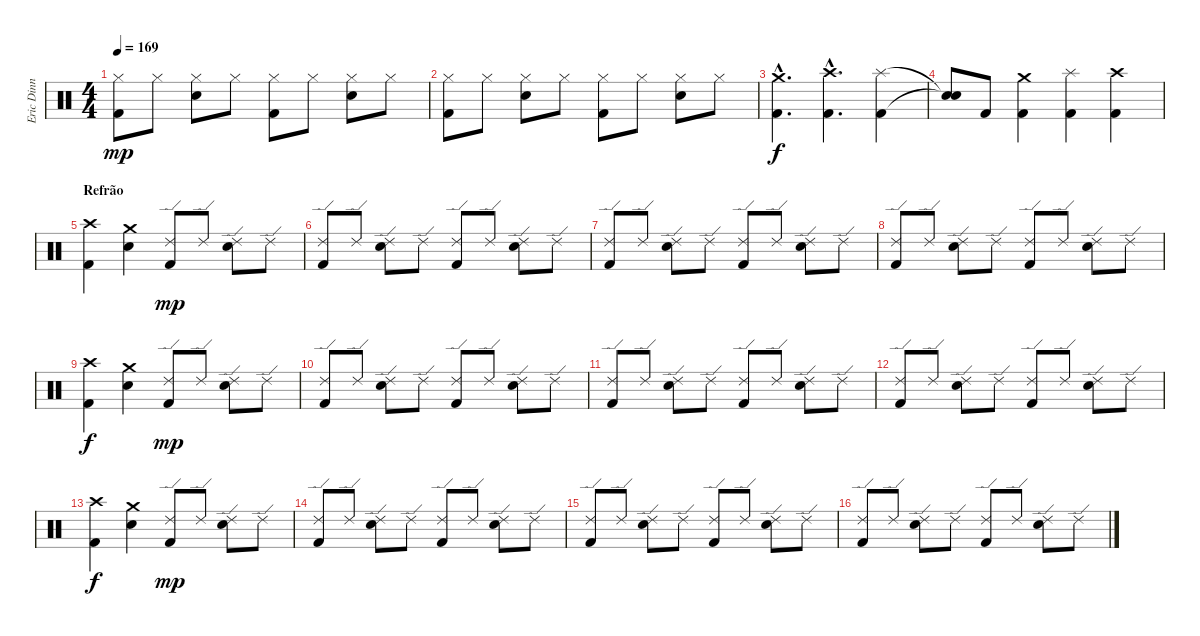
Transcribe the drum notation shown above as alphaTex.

\track ("Eric Dinn" "Eric Dinn") {instrument percussion}
\staff {score}
\articulation defaults
\ts (4 4)
\tempo 169
\clef neutral
\ks c
("Hi-Hat (closed)" "Kick (hit) 2").8{dy mp} "Hi-Hat (closed)".8 ("Hi-Hat (closed)" "Snare (hit) 2").8 "Hi-Hat (closed)".8 ("Hi-Hat (closed)" "Kick (hit) 2").8 "Hi-Hat (closed)".8 ("Hi-Hat (closed)" "Snare (hit) 2").8 "Hi-Hat (closed)".8 |
("Hi-Hat (closed)" "Kick (hit) 2").8 "Hi-Hat (closed)".8 ("Hi-Hat (closed)" "Snare (hit) 2").8 "Hi-Hat (closed)".8 ("Hi-Hat (closed)" "Kick (hit) 2").8 "Hi-Hat (closed)".8 ("Hi-Hat (closed)" "Snare (hit) 2").8 "Hi-Hat (closed)".8 |
("Crash medium (hit)"{hac} "Kick (hit) 2"{hac}).4{d dy f} ("Crash high (hit)"{hac} "Kick (hit) 2"{hac}).4{d} ("Splash (hit)" "Kick (hit) 2").4 |
("Snare (hit)"{t} "Snare (hit)"{t}).8 "Kick (hit) 2".8 ("Crash medium (hit)" "Kick (hit) 2").4 ("Splash (hit)" "Kick (hit) 2").4 ("Crash high (hit)" "Kick (hit) 2").4 |
\section ("" "Refrão")
("Crash high (hit)" "Kick (hit) 2").4 ("Crash medium (hit)" "Snare (hit) 2").4 ("Ride (edge) 2" "Kick (hit) 2").8{dy mp} "Ride (edge) 2".8 ("Ride (edge) 2" "Snare (hit) 2").8 "Ride (edge) 2".8 |
("Ride (edge) 2" "Kick (hit) 2").8 "Ride (edge) 2".8 ("Ride (edge) 2" "Snare (hit) 2").8 "Ride (edge) 2".8 ("Ride (edge) 2" "Kick (hit) 2").8 "Ride (edge) 2".8 ("Ride (edge) 2" "Snare (hit) 2").8 "Ride (edge) 2".8 |
("Ride (edge) 2" "Kick (hit) 2").8 "Ride (edge) 2".8 ("Ride (edge) 2" "Snare (hit) 2").8 "Ride (edge) 2".8 ("Ride (edge) 2" "Kick (hit) 2").8 "Ride (edge) 2".8 ("Ride (edge) 2" "Snare (hit) 2").8 "Ride (edge) 2".8 |
("Ride (edge) 2" "Kick (hit) 2").8 "Ride (edge) 2".8 ("Ride (edge) 2" "Snare (hit) 2").8 "Ride (edge) 2".8 ("Ride (edge) 2" "Kick (hit) 2").8 "Ride (edge) 2".8 ("Ride (edge) 2" "Snare (hit) 2").8 "Ride (edge) 2".8 |
("Crash high (hit)" "Kick (hit) 2").4{dy f} ("Crash medium (hit)" "Snare (hit) 2").4 ("Ride (edge) 2" "Kick (hit) 2").8{dy mp} "Ride (edge) 2".8 ("Ride (edge) 2" "Snare (hit) 2").8 "Ride (edge) 2".8 |
("Ride (edge) 2" "Kick (hit) 2").8 "Ride (edge) 2".8 ("Ride (edge) 2" "Snare (hit) 2").8 "Ride (edge) 2".8 ("Ride (edge) 2" "Kick (hit) 2").8 "Ride (edge) 2".8 ("Ride (edge) 2" "Snare (hit) 2").8 "Ride (edge) 2".8 |
("Ride (edge) 2" "Kick (hit) 2").8 "Ride (edge) 2".8 ("Ride (edge) 2" "Snare (hit) 2").8 "Ride (edge) 2".8 ("Ride (edge) 2" "Kick (hit) 2").8 "Ride (edge) 2".8 ("Ride (edge) 2" "Snare (hit) 2").8 "Ride (edge) 2".8 |
("Ride (edge) 2" "Kick (hit) 2").8 "Ride (edge) 2".8 ("Ride (edge) 2" "Snare (hit) 2").8 "Ride (edge) 2".8 ("Ride (edge) 2" "Kick (hit) 2").8 "Ride (edge) 2".8 ("Ride (edge) 2" "Snare (hit) 2").8 "Ride (edge) 2".8 |
("Crash high (hit)" "Kick (hit) 2").4{dy f} ("Crash medium (hit)" "Snare (hit) 2").4 ("Ride (edge) 2" "Kick (hit) 2").8{dy mp} "Ride (edge) 2".8 ("Ride (edge) 2" "Snare (hit) 2").8 "Ride (edge) 2".8 |
("Ride (edge) 2" "Kick (hit) 2").8 "Ride (edge) 2".8 ("Ride (edge) 2" "Snare (hit) 2").8 "Ride (edge) 2".8 ("Ride (edge) 2" "Kick (hit) 2").8 "Ride (edge) 2".8 ("Ride (edge) 2" "Snare (hit) 2").8 "Ride (edge) 2".8 |
("Ride (edge) 2" "Kick (hit) 2").8 "Ride (edge) 2".8 ("Ride (edge) 2" "Snare (hit) 2").8 "Ride (edge) 2".8 ("Ride (edge) 2" "Kick (hit) 2").8 "Ride (edge) 2".8 ("Ride (edge) 2" "Snare (hit) 2").8 "Ride (edge) 2".8 |
("Ride (edge) 2" "Kick (hit) 2").8 "Ride (edge) 2".8 ("Ride (edge) 2" "Snare (hit) 2").8 "Ride (edge) 2".8 ("Ride (edge) 2" "Kick (hit) 2").8 "Ride (edge) 2".8 ("Ride (edge) 2" "Snare (hit) 2").8 "Ride (edge) 2".8
